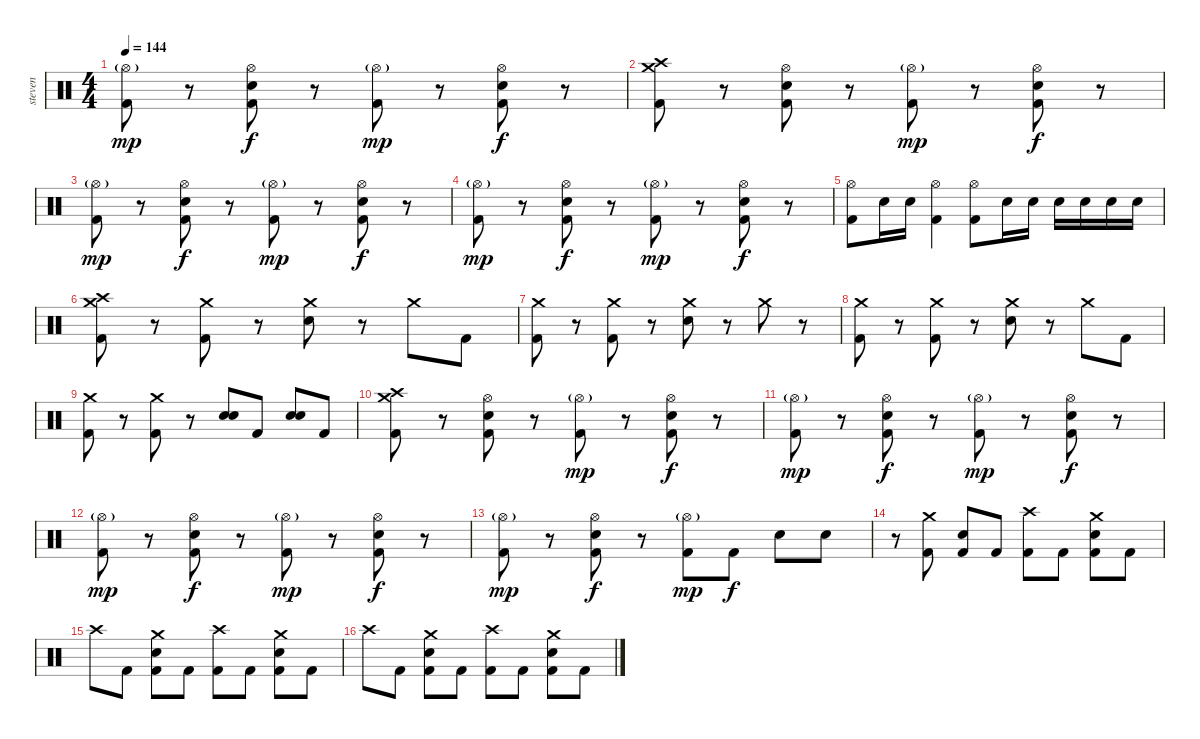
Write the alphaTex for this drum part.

\track ("steven" "steven") {instrument percussion}
\staff {score}
\articulation defaults
\ts (4 4)
\tempo 144
\clef neutral
\ks c
("Hi-Hat (open)"{g} "Kick (hit) 2").8{dy mp} r.8 ("Hi-Hat (open)" "Electric Snare (hit)" "Kick (hit) 2").8{dy f} r.8 ("Hi-Hat (open)"{g} "Kick (hit) 2").8{dy mp} r.8 ("Hi-Hat (open)" "Electric Snare (hit)" "Kick (hit) 2").8{dy f} r.8 |
("Crash medium (hit)" "Crash high (hit)" "Kick (hit) 2").8 r.8 ("Hi-Hat (open)" "Electric Snare (hit)" "Kick (hit) 2").8 r.8 ("Hi-Hat (open)"{g} "Kick (hit) 2").8{dy mp} r.8 ("Hi-Hat (open)" "Electric Snare (hit)" "Kick (hit) 2").8{dy f} r.8 |
("Hi-Hat (open)"{g} "Kick (hit) 2").8{dy mp} r.8 ("Hi-Hat (open)" "Electric Snare (hit)" "Kick (hit) 2").8{dy f} r.8 ("Hi-Hat (open)"{g} "Kick (hit) 2").8{dy mp} r.8 ("Hi-Hat (open)" "Electric Snare (hit)" "Kick (hit) 2").8{dy f} r.8 |
("Hi-Hat (open)"{g} "Kick (hit) 2").8{dy mp} r.8 ("Hi-Hat (open)" "Electric Snare (hit)" "Kick (hit) 2").8{dy f} r.8 ("Hi-Hat (open)"{g} "Kick (hit) 2").8{dy mp} r.8 ("Hi-Hat (open)" "Electric Snare (hit)" "Kick (hit) 2").8{dy f} r.8 |
("Hi-Hat (open)" "Kick (hit) 2").8 "Electric Snare (hit)".16 "Electric Snare (hit)".16 ("Hi-Hat (open)" "Kick (hit) 2").4 ("Hi-Hat (open)" "Kick (hit) 2").8 "Electric Snare (hit)".16 "Electric Snare (hit)".16 "Electric Snare (hit)".16 "Electric Snare (hit)".16 "Electric Snare (hit)".16 "Electric Snare (hit)".16 |
("Crash medium (hit)" "Crash high (hit)" "Kick (hit) 2").8 r.8 ("Crash medium (hit)" "Kick (hit) 2").8 r.8 ("Crash medium (hit)" "Electric Snare (hit)").8 r.8 "Crash medium (hit)".8 "Kick (hit) 2".8 |
("Crash medium (hit)" "Kick (hit) 2").8 r.8 ("Crash medium (hit)" "Kick (hit) 2").8 r.8 ("Crash medium (hit)" "Electric Snare (hit)").8 r.8 "Crash medium (hit)".8 r.8 |
("Crash medium (hit)" "Kick (hit) 2").8 r.8 ("Crash medium (hit)" "Kick (hit) 2").8 r.8 ("Crash medium (hit)" "Electric Snare (hit)").8 r.8 "Crash medium (hit)".8 "Kick (hit) 2".8 |
("Crash medium (hit)" "Kick (hit) 2").8 r.8 ("Crash medium (hit)" "Kick (hit) 2").8 r.8 ("Electric Snare (hit)" "Electric Snare (hit)").8 "Kick (hit) 2".8 ("Electric Snare (hit)" "Electric Snare (hit)").8 "Kick (hit) 2".8 |
("Crash high (hit)" "Crash medium (hit)" "Kick (hit) 2").8 r.8 ("Hi-Hat (open)" "Electric Snare (hit)" "Kick (hit) 2").8 r.8 ("Hi-Hat (open)"{g} "Kick (hit) 2").8{dy mp} r.8 ("Hi-Hat (open)" "Electric Snare (hit)" "Kick (hit) 2").8{dy f} r.8 |
("Hi-Hat (open)"{g} "Kick (hit) 2").8{dy mp} r.8 ("Hi-Hat (open)" "Electric Snare (hit)" "Kick (hit) 2").8{dy f} r.8 ("Hi-Hat (open)"{g} "Kick (hit) 2").8{dy mp} r.8 ("Hi-Hat (open)" "Electric Snare (hit)" "Kick (hit) 2").8{dy f} r.8 |
("Hi-Hat (open)"{g} "Kick (hit) 2").8{dy mp} r.8 ("Hi-Hat (open)" "Electric Snare (hit)" "Kick (hit) 2").8{dy f} r.8 ("Hi-Hat (open)"{g} "Kick (hit) 2").8{dy mp} r.8 ("Hi-Hat (open)" "Electric Snare (hit)" "Kick (hit) 2").8{dy f} r.8 |
("Hi-Hat (open)"{g} "Kick (hit) 2").8{dy mp} r.8 ("Hi-Hat (open)" "Electric Snare (hit)" "Kick (hit) 2").8{dy f} r.8 ("Hi-Hat (open)"{g} "Kick (hit) 2").8{dy mp} "Kick (hit) 2".8{dy f} "Electric Snare (hit)".8 "Electric Snare (hit)".8 |
r.8 ("Crash medium (hit)" "Kick (hit) 2").8 ("Electric Snare (hit)" "Kick (hit) 2").8 "Kick (hit) 2".8 ("Crash high (hit)" "Kick (hit) 2").8 "Kick (hit) 2".8 ("Crash medium (hit)" "Electric Snare (hit)" "Kick (hit) 2").8 "Kick (hit) 2".8 |
"Crash high (hit)".8 "Kick (hit) 2".8 ("Crash medium (hit)" "Electric Snare (hit)" "Kick (hit) 2").8 "Kick (hit) 2".8 ("Crash high (hit)" "Kick (hit) 2").8 "Kick (hit) 2".8 ("Crash medium (hit)" "Electric Snare (hit)" "Kick (hit) 2").8 "Kick (hit) 2".8 |
"Crash high (hit)".8 "Kick (hit) 2".8 ("Crash medium (hit)" "Electric Snare (hit)" "Kick (hit) 2").8 "Kick (hit) 2".8 ("Crash high (hit)" "Kick (hit) 2").8 "Kick (hit) 2".8 ("Crash medium (hit)" "Electric Snare (hit)" "Kick (hit) 2").8 "Kick (hit) 2".8
